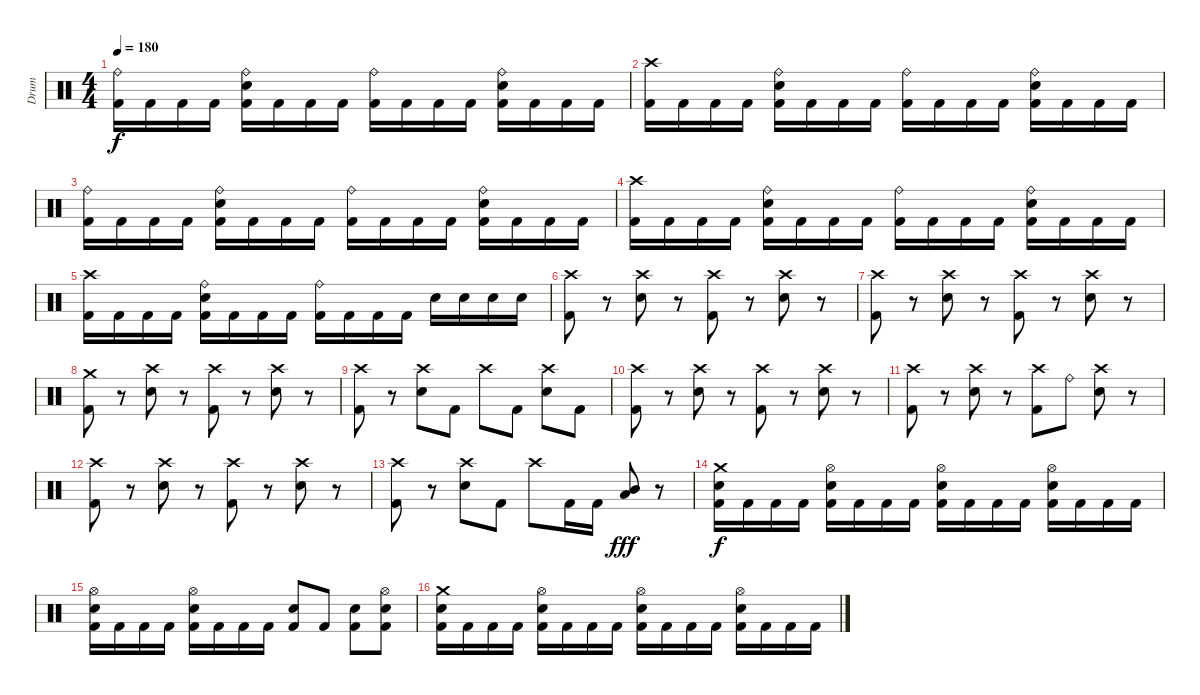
\track ("Drum" "Drum") {instrument percussion}
\staff {score}
\articulation defaults
\ts (4 4)
\tempo 180
\clef neutral
\ks c
("Ride (bell)" "Kick (hit) 2").16{dy f} "Kick (hit) 2".16 "Kick (hit) 2".16 "Kick (hit) 2".16 ("Ride (bell)" "Electric Snare (hit)" "Kick (hit) 2").16 "Kick (hit) 2".16 "Kick (hit) 2".16 "Kick (hit) 2".16 ("Ride (bell)" "Kick (hit) 2").16 "Kick (hit) 2".16 "Kick (hit) 2".16 "Kick (hit) 2".16 ("Ride (bell)" "Electric Snare (hit)" "Kick (hit) 2").16 "Kick (hit) 2".16 "Kick (hit) 2".16 "Kick (hit) 2".16 |
("Crash high (hit)" "Kick (hit) 2").16 "Kick (hit) 2".16 "Kick (hit) 2".16 "Kick (hit) 2".16 ("Ride (bell)" "Electric Snare (hit)" "Kick (hit) 2").16 "Kick (hit) 2".16 "Kick (hit) 2".16 "Kick (hit) 2".16 ("Ride (bell)" "Kick (hit) 2").16 "Kick (hit) 2".16 "Kick (hit) 2".16 "Kick (hit) 2".16 ("Ride (bell)" "Electric Snare (hit)" "Kick (hit) 2").16 "Kick (hit) 2".16 "Kick (hit) 2".16 "Kick (hit) 2".16 |
("Ride (bell)" "Kick (hit) 2").16 "Kick (hit) 2".16 "Kick (hit) 2".16 "Kick (hit) 2".16 ("Ride (bell)" "Electric Snare (hit)" "Kick (hit) 2").16 "Kick (hit) 2".16 "Kick (hit) 2".16 "Kick (hit) 2".16 ("Ride (bell)" "Kick (hit) 2").16 "Kick (hit) 2".16 "Kick (hit) 2".16 "Kick (hit) 2".16 ("Ride (bell)" "Electric Snare (hit)" "Kick (hit) 2").16 "Kick (hit) 2".16 "Kick (hit) 2".16 "Kick (hit) 2".16 |
("Crash high (hit)" "Kick (hit) 2").16 "Kick (hit) 2".16 "Kick (hit) 2".16 "Kick (hit) 2".16 ("Ride (bell)" "Electric Snare (hit)" "Kick (hit) 2").16 "Kick (hit) 2".16 "Kick (hit) 2".16 "Kick (hit) 2".16 ("Ride (bell)" "Kick (hit) 2").16 "Kick (hit) 2".16 "Kick (hit) 2".16 "Kick (hit) 2".16 ("Ride (bell)" "Electric Snare (hit)" "Kick (hit) 2").16 "Kick (hit) 2".16 "Kick (hit) 2".16 "Kick (hit) 2".16 |
("Crash high (hit)" "Kick (hit) 2").16 "Kick (hit) 2".16 "Kick (hit) 2".16 "Kick (hit) 2".16 ("Ride (bell)" "Electric Snare (hit)" "Kick (hit) 2").16 "Kick (hit) 2".16 "Kick (hit) 2".16 "Kick (hit) 2".16 ("Ride (bell)" "Kick (hit) 2").16 "Kick (hit) 2".16 "Kick (hit) 2".16 "Kick (hit) 2".16 "Electric Snare (hit)".16 "Electric Snare (hit)".16 "Electric Snare (hit)".16 "Electric Snare (hit)".16 |
("Crash high (hit)" "Kick (hit) 2").8 r.8 ("Crash high (hit)" "Electric Snare (hit)").8 r.8 ("Crash high (hit)" "Kick (hit) 2").8 r.8 ("Crash high (hit)" "Electric Snare (hit)").8 r.8 |
("Crash high (hit)" "Kick (hit) 2").8 r.8 ("Crash high (hit)" "Electric Snare (hit)").8 r.8 ("Crash high (hit)" "Kick (hit) 2").8 r.8 ("Crash high (hit)" "Electric Snare (hit)").8 r.8 |
("Crash medium (hit)" "Kick (hit) 2").8 r.8 ("Crash high (hit)" "Electric Snare (hit)").8 r.8 ("Crash high (hit)" "Kick (hit) 2").8 r.8 ("Crash high (hit)" "Electric Snare (hit)").8 r.8 |
("Crash high (hit)" "Kick (hit) 2").8 r.8 ("Crash high (hit)" "Electric Snare (hit)").8 "Kick (hit) 2".8 "Crash high (hit)".8 "Kick (hit) 2".8 ("Crash high (hit)" "Electric Snare (hit)").8 "Kick (hit) 2".8 |
("Crash high (hit)" "Kick (hit) 2").8 r.8 ("Crash high (hit)" "Electric Snare (hit)").8 r.8 ("Crash high (hit)" "Kick (hit) 2").8 r.8 ("Crash high (hit)" "Electric Snare (hit)").8 r.8 |
("Crash high (hit)" "Kick (hit) 2").8 r.8 ("Crash high (hit)" "Electric Snare (hit)").8 r.8 ("Crash high (hit)" "Kick (hit) 2").8 "Ride (bell)".8 ("Crash high (hit)" "Electric Snare (hit)").8 r.8 |
("Crash high (hit)" "Kick (hit) 2").8 r.8 ("Crash high (hit)" "Electric Snare (hit)").8 r.8 ("Crash high (hit)" "Kick (hit) 2").8 r.8 ("Crash high (hit)" "Electric Snare (hit)").8 r.8 |
("Crash high (hit)" "Kick (hit) 2").8 r.8 ("Crash high (hit)" "Electric Snare (hit)").8 "Kick (hit) 2".8 "Crash high (hit)".8 "Kick (hit) 2".16 "Kick (hit) 2".16 ("Mid Tom (hit)" "Low Tom (hit)").8{dy fff} r.8 |
("Crash medium (hit)" "Electric Snare (hit)" "Kick (hit) 2").16{dy f} "Kick (hit) 2".16 "Kick (hit) 2".16 "Kick (hit) 2".16 ("Hi-Hat (open)" "Electric Snare (hit)" "Kick (hit) 2").16 "Kick (hit) 2".16 "Kick (hit) 2".16 "Kick (hit) 2".16 ("Hi-Hat (open)" "Electric Snare (hit)" "Kick (hit) 2").16 "Kick (hit) 2".16 "Kick (hit) 2".16 "Kick (hit) 2".16 ("Hi-Hat (open)" "Electric Snare (hit)" "Kick (hit) 2").16 "Kick (hit) 2".16 "Kick (hit) 2".16 "Kick (hit) 2".16 |
("Hi-Hat (open)" "Electric Snare (hit)" "Kick (hit) 2").16 "Kick (hit) 2".16 "Kick (hit) 2".16 "Kick (hit) 2".16 ("Hi-Hat (open)" "Electric Snare (hit)" "Kick (hit) 2").16 "Kick (hit) 2".16 "Kick (hit) 2".16 "Kick (hit) 2".16 ("Electric Snare (hit)" "Kick (hit) 2").8 "Kick (hit) 2".8 ("Electric Snare (hit)" "Kick (hit) 2").8 ("Hi-Hat (open)" "Electric Snare (hit)" "Kick (hit) 2").8 |
("Crash medium (hit)" "Electric Snare (hit)" "Kick (hit) 2").16 "Kick (hit) 2".16 "Kick (hit) 2".16 "Kick (hit) 2".16 ("Hi-Hat (open)" "Electric Snare (hit)" "Kick (hit) 2").16 "Kick (hit) 2".16 "Kick (hit) 2".16 "Kick (hit) 2".16 ("Hi-Hat (open)" "Electric Snare (hit)" "Kick (hit) 2").16 "Kick (hit) 2".16 "Kick (hit) 2".16 "Kick (hit) 2".16 ("Hi-Hat (open)" "Electric Snare (hit)" "Kick (hit) 2").16 "Kick (hit) 2".16 "Kick (hit) 2".16 "Kick (hit) 2".16
